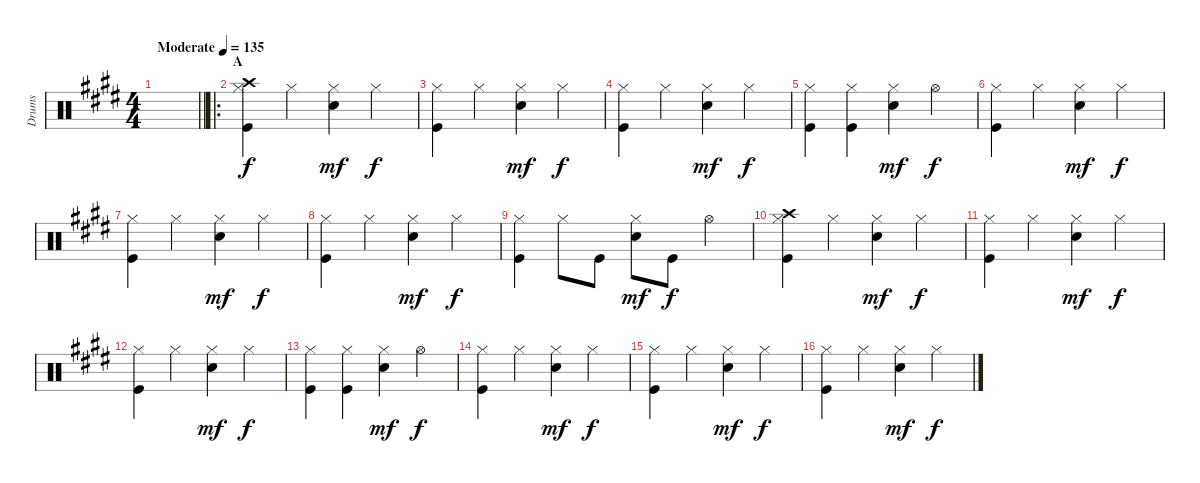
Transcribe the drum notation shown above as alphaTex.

\track ("Drums" "Drums") {instrument percussion}
\staff {score}
\articulation defaults
\ts (4 4)
\tempo (135 "Moderate")
\clef neutral
\barLineRight lightlight
\ks e
|
\ro
\section ("" "A")
("Hi-Hat (closed)" "Crash high (hit)" "Kick (hit)").4 "Hi-Hat (closed)".4 ("Hi-Hat (closed)" "Electric Snare (hit)").4{dy mf} "Hi-Hat (closed)".4{dy f} |
("Hi-Hat (closed)" "Kick (hit)").4 "Hi-Hat (closed)".4 ("Hi-Hat (closed)" "Electric Snare (hit)").4{dy mf} "Hi-Hat (closed)".4{dy f} |
("Hi-Hat (closed)" "Kick (hit)").4 "Hi-Hat (closed)".4 ("Hi-Hat (closed)" "Electric Snare (hit)").4{dy mf} "Hi-Hat (closed)".4{dy f} |
("Hi-Hat (closed)" "Kick (hit)").4 ("Hi-Hat (closed)" "Kick (hit)").4 ("Hi-Hat (closed)" "Electric Snare (hit)").4{dy mf} "Hi-Hat (open)".4{dy f} |
("Hi-Hat (closed)" "Kick (hit)").4 "Hi-Hat (closed)".4 ("Hi-Hat (closed)" "Electric Snare (hit)").4{dy mf} "Hi-Hat (closed)".4{dy f} |
("Hi-Hat (closed)" "Kick (hit)").4 "Hi-Hat (closed)".4 ("Hi-Hat (closed)" "Electric Snare (hit)").4{dy mf} "Hi-Hat (closed)".4{dy f} |
("Hi-Hat (closed)" "Kick (hit)").4 "Hi-Hat (closed)".4 ("Hi-Hat (closed)" "Electric Snare (hit)").4{dy mf} "Hi-Hat (closed)".4{dy f} |
("Hi-Hat (closed)" "Kick (hit)").4 "Hi-Hat (closed)".8 "Kick (hit)".8 ("Hi-Hat (closed)" "Electric Snare (hit)").8{dy mf} "Kick (hit)".8{dy f} "Hi-Hat (open)".4 |
("Hi-Hat (closed)" "Crash high (hit)" "Kick (hit)").4 "Hi-Hat (closed)".4 ("Hi-Hat (closed)" "Electric Snare (hit)").4{dy mf} "Hi-Hat (closed)".4{dy f} |
("Hi-Hat (closed)" "Kick (hit)").4 "Hi-Hat (closed)".4 ("Hi-Hat (closed)" "Electric Snare (hit)").4{dy mf} "Hi-Hat (closed)".4{dy f} |
("Hi-Hat (closed)" "Kick (hit)").4 "Hi-Hat (closed)".4 ("Hi-Hat (closed)" "Electric Snare (hit)").4{dy mf} "Hi-Hat (closed)".4{dy f} |
("Hi-Hat (closed)" "Kick (hit)").4 ("Hi-Hat (closed)" "Kick (hit)").4 ("Hi-Hat (closed)" "Electric Snare (hit)").4{dy mf} "Hi-Hat (open)".4{dy f} |
("Hi-Hat (closed)" "Kick (hit)").4 "Hi-Hat (closed)".4 ("Hi-Hat (closed)" "Electric Snare (hit)").4{dy mf} "Hi-Hat (closed)".4{dy f} |
("Hi-Hat (closed)" "Kick (hit)").4 "Hi-Hat (closed)".4 ("Hi-Hat (closed)" "Electric Snare (hit)").4{dy mf} "Hi-Hat (closed)".4{dy f} |
("Hi-Hat (closed)" "Kick (hit)").4 "Hi-Hat (closed)".4 ("Hi-Hat (closed)" "Electric Snare (hit)").4{dy mf} "Hi-Hat (closed)".4{dy f}
